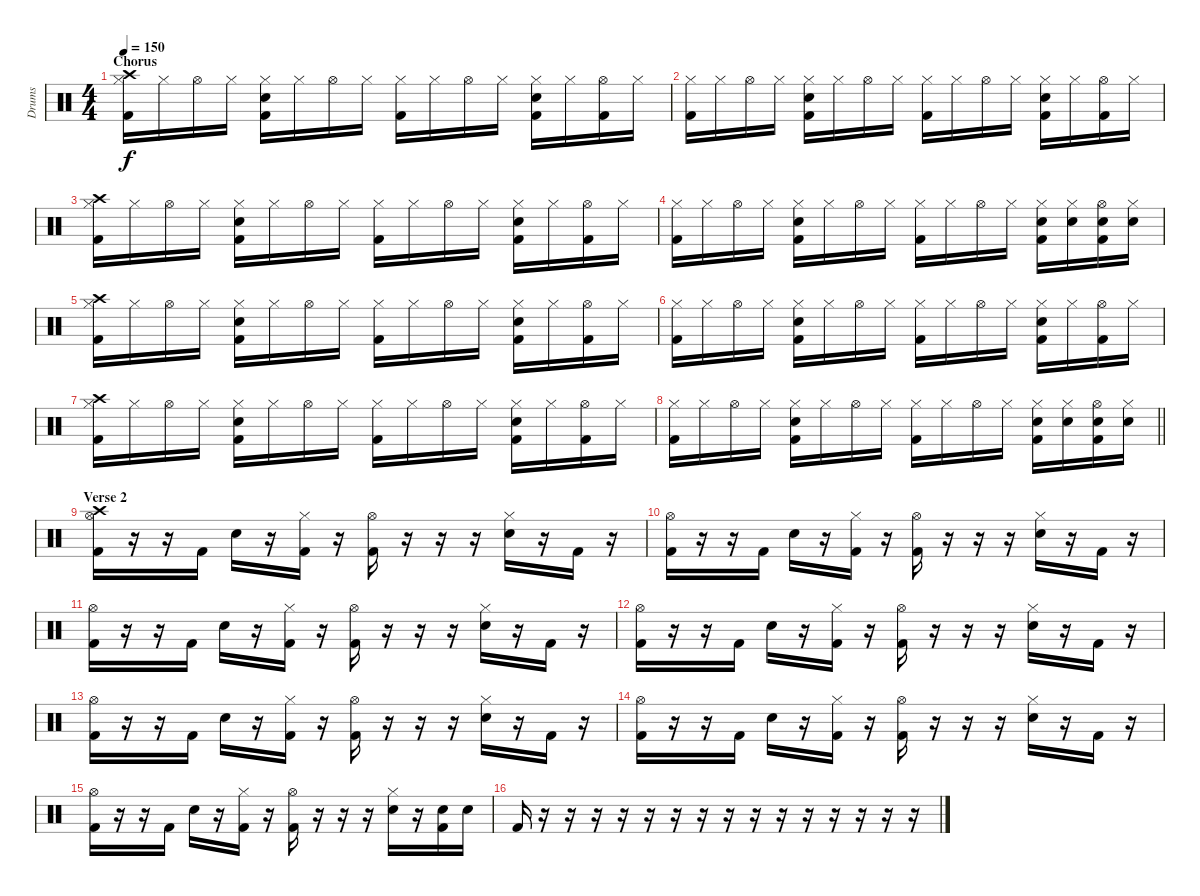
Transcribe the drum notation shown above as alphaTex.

\track ("Drums" "Drums") {instrument percussion}
\staff {score}
\articulation defaults
\ts (4 4)
\section ("" "Chorus")
\tempo 150
\clef neutral
\ks c
("Crash high (hit)" "Hi-Hat (closed)" "Kick (hit) 2").16{dy f} "Hi-Hat (closed)".16 "Hi-Hat (open)".16 "Hi-Hat (closed)".16 ("Hi-Hat (closed)" "Electric Snare (hit)" "Kick (hit) 2").16 "Hi-Hat (closed)".16 "Hi-Hat (open)".16 "Hi-Hat (closed)".16 ("Hi-Hat (closed)" "Kick (hit) 2").16 "Hi-Hat (closed)".16 "Hi-Hat (open)".16 "Hi-Hat (closed)".16 ("Hi-Hat (closed)" "Electric Snare (hit)" "Kick (hit) 2").16 "Hi-Hat (closed)".16 ("Hi-Hat (open)" "Kick (hit) 2").16 "Hi-Hat (closed)".16 |
("Hi-Hat (closed)" "Kick (hit) 2").16 "Hi-Hat (closed)".16 "Hi-Hat (open)".16 "Hi-Hat (closed)".16 ("Hi-Hat (closed)" "Electric Snare (hit)" "Kick (hit) 2").16 "Hi-Hat (closed)".16 "Hi-Hat (open)".16 "Hi-Hat (closed)".16 ("Hi-Hat (closed)" "Kick (hit) 2").16 "Hi-Hat (closed)".16 "Hi-Hat (open)".16 "Hi-Hat (closed)".16 ("Hi-Hat (closed)" "Electric Snare (hit)" "Kick (hit) 2").16 "Hi-Hat (closed)".16 ("Hi-Hat (open)" "Kick (hit) 2").16 "Hi-Hat (closed)".16 |
("Crash high (hit)" "Hi-Hat (closed)" "Kick (hit) 2").16 "Hi-Hat (closed)".16 "Hi-Hat (open)".16 "Hi-Hat (closed)".16 ("Hi-Hat (closed)" "Electric Snare (hit)" "Kick (hit) 2").16 "Hi-Hat (closed)".16 "Hi-Hat (open)".16 "Hi-Hat (closed)".16 ("Hi-Hat (closed)" "Kick (hit) 2").16 "Hi-Hat (closed)".16 "Hi-Hat (open)".16 "Hi-Hat (closed)".16 ("Hi-Hat (closed)" "Electric Snare (hit)" "Kick (hit) 2").16 "Hi-Hat (closed)".16 ("Hi-Hat (open)" "Kick (hit) 2").16 "Hi-Hat (closed)".16 |
("Hi-Hat (closed)" "Kick (hit) 2").16 "Hi-Hat (closed)".16 "Hi-Hat (open)".16 "Hi-Hat (closed)".16 ("Hi-Hat (closed)" "Electric Snare (hit)" "Kick (hit) 2").16 "Hi-Hat (closed)".16 "Hi-Hat (open)".16 "Hi-Hat (closed)".16 ("Hi-Hat (closed)" "Kick (hit) 2").16 "Hi-Hat (closed)".16 "Hi-Hat (open)".16 "Hi-Hat (closed)".16 ("Hi-Hat (closed)" "Electric Snare (hit)" "Kick (hit) 2").16 ("Hi-Hat (closed)" "Electric Snare (hit)").16 ("Hi-Hat (open)" "Electric Snare (hit)" "Kick (hit) 2").16 ("Hi-Hat (closed)" "Electric Snare (hit)").16 |
("Crash high (hit)" "Hi-Hat (closed)" "Kick (hit) 2").16 "Hi-Hat (closed)".16 "Hi-Hat (open)".16 "Hi-Hat (closed)".16 ("Hi-Hat (closed)" "Electric Snare (hit)" "Kick (hit) 2").16 "Hi-Hat (closed)".16 "Hi-Hat (open)".16 "Hi-Hat (closed)".16 ("Hi-Hat (closed)" "Kick (hit) 2").16 "Hi-Hat (closed)".16 "Hi-Hat (open)".16 "Hi-Hat (closed)".16 ("Hi-Hat (closed)" "Electric Snare (hit)" "Kick (hit) 2").16 "Hi-Hat (closed)".16 ("Hi-Hat (open)" "Kick (hit) 2").16 "Hi-Hat (closed)".16 |
("Hi-Hat (closed)" "Kick (hit) 2").16 "Hi-Hat (closed)".16 "Hi-Hat (open)".16 "Hi-Hat (closed)".16 ("Hi-Hat (closed)" "Electric Snare (hit)" "Kick (hit) 2").16 "Hi-Hat (closed)".16 "Hi-Hat (open)".16 "Hi-Hat (closed)".16 ("Hi-Hat (closed)" "Kick (hit) 2").16 "Hi-Hat (closed)".16 "Hi-Hat (open)".16 "Hi-Hat (closed)".16 ("Hi-Hat (closed)" "Electric Snare (hit)" "Kick (hit) 2").16 "Hi-Hat (closed)".16 ("Hi-Hat (open)" "Kick (hit) 2").16 "Hi-Hat (closed)".16 |
("Crash high (hit)" "Hi-Hat (closed)" "Kick (hit) 2").16 "Hi-Hat (closed)".16 "Hi-Hat (open)".16 "Hi-Hat (closed)".16 ("Hi-Hat (closed)" "Electric Snare (hit)" "Kick (hit) 2").16 "Hi-Hat (closed)".16 "Hi-Hat (open)".16 "Hi-Hat (closed)".16 ("Hi-Hat (closed)" "Kick (hit) 2").16 "Hi-Hat (closed)".16 "Hi-Hat (open)".16 "Hi-Hat (closed)".16 ("Hi-Hat (closed)" "Electric Snare (hit)" "Kick (hit) 2").16 "Hi-Hat (closed)".16 ("Hi-Hat (open)" "Kick (hit) 2").16 "Hi-Hat (closed)".16 |
\barLineRight lightlight
("Hi-Hat (closed)" "Kick (hit) 2").16 "Hi-Hat (closed)".16 "Hi-Hat (open)".16 "Hi-Hat (closed)".16 ("Hi-Hat (closed)" "Electric Snare (hit)" "Kick (hit) 2").16 "Hi-Hat (closed)".16 "Hi-Hat (open)".16 "Hi-Hat (closed)".16 ("Hi-Hat (closed)" "Kick (hit) 2").16 "Hi-Hat (closed)".16 "Hi-Hat (open)".16 "Hi-Hat (closed)".16 ("Hi-Hat (closed)" "Electric Snare (hit)" "Kick (hit) 2").16 ("Hi-Hat (closed)" "Electric Snare (hit)").16 ("Hi-Hat (open)" "Electric Snare (hit)" "Kick (hit) 2").16 ("Hi-Hat (closed)" "Electric Snare (hit)").16 |
\section ("" "Verse 2")
("Crash high (hit)" "Hi-Hat (open)" "Kick (hit) 2").16 r.16 r.16 "Kick (hit) 2".16 "Electric Snare (hit)".16 r.16 ("Hi-Hat (closed)" "Kick (hit) 2").16 r.16 ("Hi-Hat (open)" "Kick (hit) 2").16 r.16 r.16 r.16 ("Hi-Hat (closed)" "Electric Snare (hit)").16 r.16 "Kick (hit) 2".16 r.16 |
("Hi-Hat (open)" "Kick (hit) 2").16 r.16 r.16 "Kick (hit) 2".16 "Electric Snare (hit)".16 r.16 ("Hi-Hat (closed)" "Kick (hit) 2").16 r.16 ("Hi-Hat (open)" "Kick (hit) 2").16 r.16 r.16 r.16 ("Hi-Hat (closed)" "Electric Snare (hit)").16 r.16 "Kick (hit) 2".16 r.16 |
("Hi-Hat (open)" "Kick (hit) 2").16 r.16 r.16 "Kick (hit) 2".16 "Electric Snare (hit)".16 r.16 ("Hi-Hat (closed)" "Kick (hit) 2").16 r.16 ("Hi-Hat (open)" "Kick (hit) 2").16 r.16 r.16 r.16 ("Hi-Hat (closed)" "Electric Snare (hit)").16 r.16 "Kick (hit) 2".16 r.16 |
("Hi-Hat (open)" "Kick (hit) 2").16 r.16 r.16 "Kick (hit) 2".16 "Electric Snare (hit)".16 r.16 ("Hi-Hat (closed)" "Kick (hit) 2").16 r.16 ("Hi-Hat (open)" "Kick (hit) 2").16 r.16 r.16 r.16 ("Hi-Hat (closed)" "Electric Snare (hit)").16 r.16 "Kick (hit) 2".16 r.16 |
("Hi-Hat (open)" "Kick (hit) 2").16 r.16 r.16 "Kick (hit) 2".16 "Electric Snare (hit)".16 r.16 ("Hi-Hat (closed)" "Kick (hit) 2").16 r.16 ("Hi-Hat (open)" "Kick (hit) 2").16 r.16 r.16 r.16 ("Hi-Hat (closed)" "Electric Snare (hit)").16 r.16 "Kick (hit) 2".16 r.16 |
("Hi-Hat (open)" "Kick (hit) 2").16 r.16 r.16 "Kick (hit) 2".16 "Electric Snare (hit)".16 r.16 ("Hi-Hat (closed)" "Kick (hit) 2").16 r.16 ("Hi-Hat (open)" "Kick (hit) 2").16 r.16 r.16 r.16 ("Hi-Hat (closed)" "Electric Snare (hit)").16 r.16 "Kick (hit) 2".16 r.16 |
("Hi-Hat (open)" "Kick (hit) 2").16 r.16 r.16 "Kick (hit) 2".16 "Electric Snare (hit)".16 r.16 ("Hi-Hat (closed)" "Kick (hit) 2").16 r.16 ("Hi-Hat (open)" "Kick (hit) 2").16 r.16 r.16 r.16 ("Hi-Hat (closed)" "Electric Snare (hit)").16 r.16 ("Electric Snare (hit)" "Kick (hit) 2").16 "Electric Snare (hit)".16 |
"Kick (hit) 2".16 r.16 r.16 r.16 r.16 r.16 r.16 r.16 r.16 r.16 r.16 r.16 r.16 r.16 r.16 r.16
